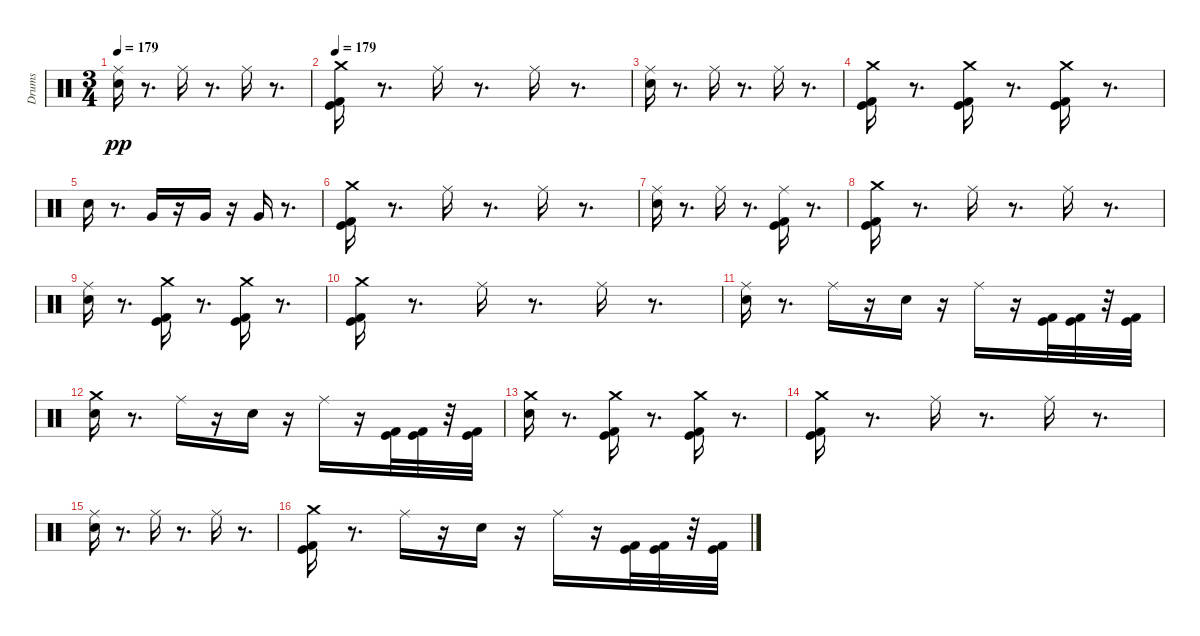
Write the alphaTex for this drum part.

\track ("Drums" "Drums") {instrument percussion}
\staff {score}
\articulation defaults
\ts (3 4)
\tempo 179
\clef neutral
\ks c
("Ride (middle)" "Snare (hit) 2").16{dy pp} r.8{d} "Ride (middle)".16 r.8{d} "Ride (middle)".16 r.8{d} |
\tempo 179
("Crash medium (hit)" "Kick (hit) 2" "Kick (hit)").16 r.8{d} "Ride (middle)".16 r.8{d} "Ride (middle)".16 r.8{d} |
("Ride (middle)" "Snare (hit) 2").16 r.8{d} "Ride (middle)".16 r.8{d} "Ride (middle)".16 r.8{d} |
("Crash medium (hit)" "Kick (hit) 2" "Kick (hit)").16 r.8{d} ("Crash medium (hit)" "Kick (hit) 2" "Kick (hit)").16 r.8{d} ("Crash medium (hit)" "Kick (hit) 2" "Kick (hit)").16 r.8{d} |
"Snare (hit) 2".16 r.8{d} "Very Low Tom (hit)".16 r.16 "Very Low Tom (hit)".16 r.16 "Very Low Tom (hit)".16 r.8{d} |
("Crash medium (hit)" "Kick (hit) 2" "Kick (hit)").16 r.8{d} "Ride (middle)".16 r.8{d} "Ride (middle)".16 r.8{d} |
("Ride (middle)" "Snare (hit) 2").16 r.8{d} "Ride (middle)".16 r.8{d} ("Ride (middle)" "Kick (hit) 2" "Kick (hit)").16 r.8{d} |
("Crash medium (hit)" "Kick (hit) 2" "Kick (hit)").16 r.8{d} "Ride (middle)".16 r.8{d} "Ride (middle)".16 r.8{d} |
("Ride (middle)" "Snare (hit) 2").16 r.8{d} ("Crash medium (hit)" "Kick (hit) 2" "Kick (hit)").16 r.8{d} ("Crash medium (hit)" "Kick (hit) 2" "Kick (hit)").16 r.8{d} |
("Crash medium (hit)" "Kick (hit) 2" "Kick (hit)").16 r.8{d} "Ride (middle)".16 r.8{d} "Ride (middle)".16 r.8{d} |
("Ride (middle)" "Snare (hit) 2").16 r.8{d} "Ride (middle)".16 r.16 "Snare (hit) 2".16 r.16 "Ride (middle)".16 r.16 ("Kick (hit) 2" "Kick (hit)").32 ("Kick (hit) 2" "Kick (hit)").32 r.32 ("Kick (hit) 2" "Kick (hit)").32 |
("Crash medium (hit)" "Snare (hit) 2").16 r.8{d} "Ride (middle)".16 r.16 "Snare (hit) 2".16 r.16 "Ride (middle)".16 r.16 ("Kick (hit) 2" "Kick (hit)").32 ("Kick (hit) 2" "Kick (hit)").32 r.32 ("Kick (hit) 2" "Kick (hit)").32 |
("Crash medium (hit)" "Snare (hit) 2").16 r.8{d} ("Crash medium (hit)" "Kick (hit)" "Kick (hit) 2").16 r.8{d} ("Kick (hit)" "Crash medium (hit)" "Kick (hit) 2").16 r.8{d} |
("Crash medium (hit)" "Kick (hit) 2" "Kick (hit)").16 r.8{d} "Ride (middle)".16 r.8{d} "Ride (middle)".16 r.8{d} |
("Ride (middle)" "Snare (hit) 2").16 r.8{d} "Ride (middle)".16 r.8{d} "Ride (middle)".16 r.8{d} |
("Kick (hit)" "Kick (hit) 2" "Crash medium (hit)").16 r.8{d} "Ride (middle)".16 r.16 "Snare (hit) 2".16 r.16 "Ride (middle)".16 r.16 ("Kick (hit) 2" "Kick (hit)").32 ("Kick (hit) 2" "Kick (hit)").32 r.32 ("Kick (hit) 2" "Kick (hit)").32
